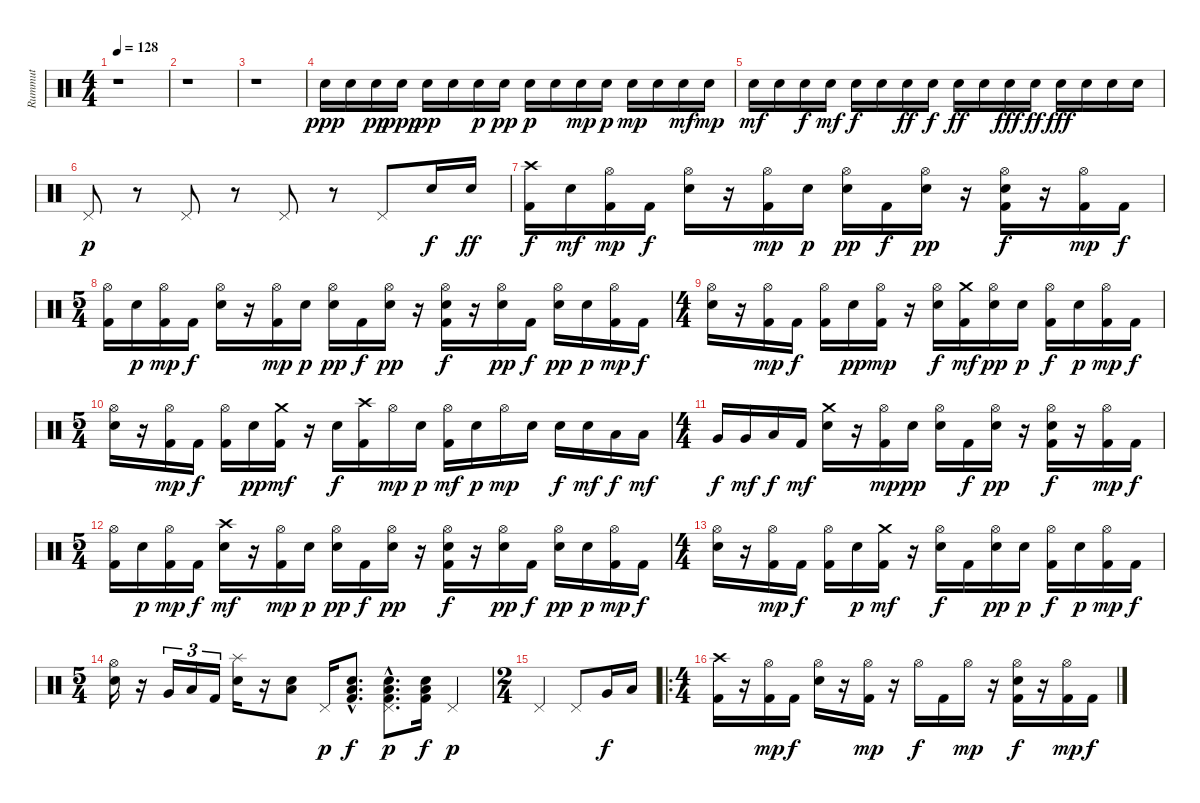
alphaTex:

\track ("Rummut" "Rummut") {instrument percussion}
\staff {score}
\articulation defaults
\ts (4 4)
\tempo 128
\clef neutral
\ks c
r.1{dy ppp} |
r.1 |
r.1 |
"Electric Snare (hit)".16 "Electric Snare (hit)".16 "Electric Snare (hit)".16{dy pp} "Electric Snare (hit)".16{dy ppp} "Electric Snare (hit)".16{dy pp} "Electric Snare (hit)".16 "Electric Snare (hit)".16{dy p} "Electric Snare (hit)".16{dy pp} "Electric Snare (hit)".16{dy p} "Electric Snare (hit)".16 "Electric Snare (hit)".16{dy mp} "Electric Snare (hit)".16{dy p} "Electric Snare (hit)".16{dy mp} "Electric Snare (hit)".16 "Electric Snare (hit)".16{dy mf} "Electric Snare (hit)".16{dy mp} |
"Electric Snare (hit)".16{dy mf} "Electric Snare (hit)".16 "Electric Snare (hit)".16{dy f} "Electric Snare (hit)".16{dy mf} "Electric Snare (hit)".16{dy f} "Electric Snare (hit)".16 "Electric Snare (hit)".16{dy ff} "Electric Snare (hit)".16{dy f} "Electric Snare (hit)".16{dy ff} "Electric Snare (hit)".16 "Electric Snare (hit)".16{dy fff} "Electric Snare (hit)".16{dy ff} "Electric Snare (hit)".16{dy fff} "Electric Snare (hit)".16 "Electric Snare (hit)".16 "Electric Snare (hit)".16 |
"Pedal Hi-Hat (hit)".8{dy p} r.8 "Pedal Hi-Hat (hit)".8 r.8 "Pedal Hi-Hat (hit)".8 r.8 "Pedal Hi-Hat (hit)".8 "Electric Snare (hit)".16{dy f} "Electric Snare (hit)".16{dy ff} |
("Crash high (hit)" "Kick (hit) 2").16{dy f} "Electric Snare (hit)".16{dy mf} ("Hi-Hat (open)" "Kick (hit) 2").16{dy mp} "Kick (hit) 2".16{dy f} ("Hi-Hat (open)" "Electric Snare (hit)").16 r.16 ("Hi-Hat (open)" "Kick (hit) 2").16{dy mp} "Electric Snare (hit)".16{dy p} ("Hi-Hat (open)" "Electric Snare (hit)").16{dy pp} "Kick (hit) 2".16{dy f} ("Hi-Hat (open)" "Electric Snare (hit)").16{dy pp} r.16 ("Hi-Hat (open)" "Electric Snare (hit)" "Kick (hit) 2").16{dy f} r.16 ("Hi-Hat (open)" "Kick (hit) 2").16{dy mp} "Kick (hit) 2".16{dy f} |
\ts (5 4)
("Hi-Hat (open)" "Kick (hit) 2").16 "Electric Snare (hit)".16{dy p} ("Hi-Hat (open)" "Kick (hit) 2").16{dy mp} "Kick (hit) 2".16{dy f} ("Hi-Hat (open)" "Electric Snare (hit)").16 r.16 ("Hi-Hat (open)" "Kick (hit) 2").16{dy mp} "Electric Snare (hit)".16{dy p} ("Hi-Hat (open)" "Electric Snare (hit)").16{dy pp} "Kick (hit) 2".16{dy f} ("Hi-Hat (open)" "Electric Snare (hit)").16{dy pp} r.16 ("Hi-Hat (open)" "Electric Snare (hit)" "Kick (hit) 2").16{dy f} r.16 ("Hi-Hat (open)" "Electric Snare (hit)").16{dy pp} "Kick (hit) 2".16{dy f} ("Hi-Hat (open)" "Electric Snare (hit)").16{dy pp} "Electric Snare (hit)".16{dy p} ("Hi-Hat (open)" "Kick (hit) 2").16{dy mp} "Kick (hit) 2".16{dy f} |
\ts (4 4)
("Hi-Hat (open)" "Electric Snare (hit)").16 r.16 ("Hi-Hat (open)" "Kick (hit) 2").16{dy mp} "Kick (hit) 2".16{dy f} ("Hi-Hat (open)" "Kick (hit) 2").16 "Electric Snare (hit)".16{dy pp} ("Hi-Hat (open)" "Kick (hit) 2").16{dy mp} r.16 ("Hi-Hat (open)" "Electric Snare (hit)").16{dy f} ("Crash medium (hit)" "Kick (hit) 2").16{dy mf} ("Hi-Hat (open)" "Electric Snare (hit)").16{dy pp} "Electric Snare (hit)".16{dy p} ("Hi-Hat (open)" "Kick (hit) 2").16{dy f} "Electric Snare (hit)".16{dy p} ("Hi-Hat (open)" "Kick (hit) 2").16{dy mp} "Kick (hit) 2".16{dy f} |
\ts (5 4)
("Hi-Hat (open)" "Electric Snare (hit)").16 r.16 ("Hi-Hat (open)" "Kick (hit) 2").16{dy mp} "Kick (hit) 2".16{dy f} ("Hi-Hat (open)" "Kick (hit) 2").16 "Electric Snare (hit)".16{dy pp} ("Crash medium (hit)" "Kick (hit) 2").16{dy mf} r.16 "Electric Snare (hit)".16{dy f} ("Crash high (hit)" "Kick (hit) 2").16 "Hi-Hat (open)".16{dy mp} "Electric Snare (hit)".16{dy p} ("Hi-Hat (open)" "Kick (hit) 2").16{dy mf} "Electric Snare (hit)".16{dy p} "Hi-Hat (open)".16{dy mp} "Electric Snare (hit)".16 "Electric Snare (hit)".16{dy f} "Electric Snare (hit)".16{dy mf} "Low Tom (hit)".16{dy f} "Low Tom (hit)".16{dy mf} |
\ts (4 4)
"Very Low Tom (hit)".16{dy f} "Very Low Tom (hit)".16{dy mf} "Low Floor Tom (hit)".16{dy f} "Kick (hit) 2".16{dy mf} ("Crash medium (hit)" "Electric Snare (hit)").16 r.16 ("Hi-Hat (open)" "Kick (hit) 2").16{dy mp} "Electric Snare (hit)".16{dy pp} ("Hi-Hat (open)" "Electric Snare (hit)").16 "Kick (hit) 2".16{dy f} ("Hi-Hat (open)" "Electric Snare (hit)").16{dy pp} r.16 ("Hi-Hat (open)" "Electric Snare (hit)" "Kick (hit) 2").16{dy f} r.16 ("Hi-Hat (open)" "Kick (hit) 2").16{dy mp} "Kick (hit) 2".16{dy f} |
\ts (5 4)
("Hi-Hat (open)" "Kick (hit) 2").16 "Electric Snare (hit)".16{dy p} ("Hi-Hat (open)" "Kick (hit) 2").16{dy mp} "Kick (hit) 2".16{dy f} ("Crash high (hit)" "Electric Snare (hit)").16{dy mf} r.16 ("Hi-Hat (open)" "Kick (hit) 2").16{dy mp} "Electric Snare (hit)".16{dy p} ("Hi-Hat (open)" "Electric Snare (hit)").16{dy pp} "Kick (hit) 2".16{dy f} ("Hi-Hat (open)" "Electric Snare (hit)").16{dy pp} r.16 ("Hi-Hat (open)" "Electric Snare (hit)" "Kick (hit) 2").16{dy f} r.16 ("Hi-Hat (open)" "Electric Snare (hit)").16{dy pp} "Kick (hit) 2".16{dy f} ("Hi-Hat (open)" "Electric Snare (hit)").16{dy pp} "Electric Snare (hit)".16{dy p} ("Hi-Hat (open)" "Kick (hit) 2").16{dy mp} "Kick (hit) 2".16{dy f} |
\ts (4 4)
("Hi-Hat (open)" "Electric Snare (hit)").16 r.16 ("Hi-Hat (open)" "Kick (hit) 2").16{dy mp} "Kick (hit) 2".16{dy f} ("Hi-Hat (open)" "Kick (hit) 2").16 "Electric Snare (hit)".16{dy p} ("Crash medium (hit)" "Kick (hit) 2").16{dy mf} r.16 ("Hi-Hat (open)" "Electric Snare (hit)").16{dy f} "Kick (hit) 2".16 ("Hi-Hat (open)" "Electric Snare (hit)").16{dy pp} "Electric Snare (hit)".16{dy p} ("Hi-Hat (open)" "Kick (hit) 2").16{dy f} "Electric Snare (hit)".16{dy p} ("Hi-Hat (open)" "Kick (hit) 2").16{dy mp} "Kick (hit) 2".16{dy f} |
\ts (5 4)
("Hi-Hat (open)" "Electric Snare (hit)").16 r.16 "Very Low Tom (hit)".16{tu (3 2)} "Low Floor Tom (hit)".16{tu (3 2)} "Kick (hit) 2".16{tu (3 2)} ("Splash (hit)" "Electric Snare (hit)").16 r.16 ("Low Floor Tom (hit)" "Electric Snare (hit)").8 "Pedal Hi-Hat (hit)".16{dy p} ("Low Floor Tom (hit)"{hac} "Electric Snare (hit)"{hac} "Kick (hit) 2"{hac}).8{d dy f} ("Pedal Hi-Hat (hit)"{hac} "Low Floor Tom (hit)"{hac} "Electric Snare (hit)"{hac} "Kick (hit) 2"{hac}).8{d dy p} ("Low Floor Tom (hit)" "Electric Snare (hit)" "Kick (hit) 2").16{dy f} "Pedal Hi-Hat (hit)".4{dy p} |
\ts (2 4)
"Pedal Hi-Hat (hit)".4 "Pedal Hi-Hat (hit)".8 "Very Low Tom (hit)".16{dy f} "Low Tom (hit)".16 |
\ro
\ts (4 4)
("Crash high (hit)" "Kick (hit) 2").16 r.16 ("Hi-Hat (open)" "Kick (hit) 2").16{dy mp} "Kick (hit) 2".16{dy f} ("Hi-Hat (open)" "Electric Snare (hit)").16 r.16 ("Hi-Hat (open)" "Kick (hit) 2").16{dy mp} r.16 "Hi-Hat (open)".16{dy f} "Kick (hit) 2".16 "Hi-Hat (open)".16{dy mp} r.16 ("Hi-Hat (open)" "Electric Snare (hit)" "Kick (hit) 2").16{dy f} r.16 ("Hi-Hat (open)" "Kick (hit) 2").16{dy mp} "Kick (hit) 2".16{dy f}
